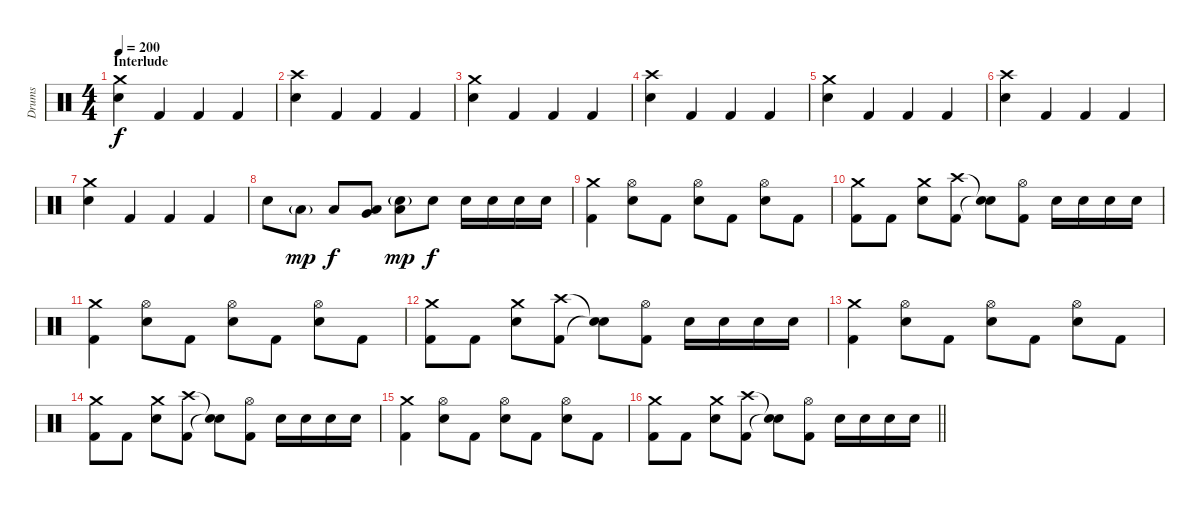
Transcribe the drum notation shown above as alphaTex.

\track ("Drums" "Drums") {instrument percussion}
\staff {score}
\articulation defaults
\ts (4 4)
\section ("" "Interlude")
\tempo 200
\clef neutral
\ks c
("Crash medium (hit)" "Electric Snare (hit)").4{dy f} "Kick (hit) 2".4 "Kick (hit) 2".4 "Kick (hit) 2".4 |
("Crash high (hit)" "Electric Snare (hit)").4 "Kick (hit) 2".4 "Kick (hit) 2".4 "Kick (hit) 2".4 |
("Crash medium (hit)" "Electric Snare (hit)").4 "Kick (hit) 2".4 "Kick (hit) 2".4 "Kick (hit) 2".4 |
("Crash high (hit)" "Electric Snare (hit)").4 "Kick (hit) 2".4 "Kick (hit) 2".4 "Kick (hit) 2".4 |
("Crash medium (hit)" "Electric Snare (hit)").4 "Kick (hit) 2".4 "Kick (hit) 2".4 "Kick (hit) 2".4 |
("Crash high (hit)" "Electric Snare (hit)").4 "Kick (hit) 2".4 "Kick (hit) 2".4 "Kick (hit) 2".4 |
("Crash medium (hit)" "Electric Snare (hit)").4 "Kick (hit) 2".4 "Kick (hit) 2".4 "Kick (hit) 2".4 |
"Electric Snare (hit)".8 "Low Floor Tom (hit)"{g}.8{dy mp} "Low Floor Tom (hit)".8{dy f} ("Low Tom (hit)" "Very Low Tom (hit)").8 ("Electric Snare (hit)"{g} "Low Tom (hit)").8{dy mp} "Electric Snare (hit)".8{dy f} "Electric Snare (hit)".16 "Electric Snare (hit)".16 "Electric Snare (hit)".16 "Electric Snare (hit)".16 |
("Crash medium (hit)" "Kick (hit) 2").4 ("Hi-Hat (open)" "Electric Snare (hit)").8 "Kick (hit) 2".8 ("Hi-Hat (open)" "Electric Snare (hit)").8 "Kick (hit) 2".8 ("Hi-Hat (open)" "Electric Snare (hit)").8 "Kick (hit) 2".8 |
("Crash medium (hit)" "Kick (hit) 2").8 "Kick (hit) 2".8 ("Crash medium (hit)" "Electric Snare (hit)").8 ("Crash high (hit)" "Kick (hit) 2").8 ("Snare (hit)"{t} "Snare (hit)"{t}).8 ("Hi-Hat (open)" "Kick (hit) 2").8 "Electric Snare (hit)".16 "Electric Snare (hit)".16 "Electric Snare (hit)".16 "Electric Snare (hit)".16 |
("Crash medium (hit)" "Kick (hit) 2").4 ("Hi-Hat (open)" "Electric Snare (hit)").8 "Kick (hit) 2".8 ("Hi-Hat (open)" "Electric Snare (hit)").8 "Kick (hit) 2".8 ("Hi-Hat (open)" "Electric Snare (hit)").8 "Kick (hit) 2".8 |
("Crash medium (hit)" "Kick (hit) 2").8 "Kick (hit) 2".8 ("Crash medium (hit)" "Electric Snare (hit)").8 ("Crash high (hit)" "Kick (hit) 2").8 ("Snare (hit)"{t} "Snare (hit)"{t}).8 ("Hi-Hat (open)" "Kick (hit) 2").8 "Electric Snare (hit)".16 "Electric Snare (hit)".16 "Electric Snare (hit)".16 "Electric Snare (hit)".16 |
("Crash medium (hit)" "Kick (hit) 2").4 ("Hi-Hat (open)" "Electric Snare (hit)").8 "Kick (hit) 2".8 ("Hi-Hat (open)" "Electric Snare (hit)").8 "Kick (hit) 2".8 ("Hi-Hat (open)" "Electric Snare (hit)").8 "Kick (hit) 2".8 |
("Crash medium (hit)" "Kick (hit) 2").8 "Kick (hit) 2".8 ("Crash medium (hit)" "Electric Snare (hit)").8 ("Crash high (hit)" "Kick (hit) 2").8 ("Snare (hit)"{t} "Snare (hit)"{t}).8 ("Hi-Hat (open)" "Kick (hit) 2").8 "Electric Snare (hit)".16 "Electric Snare (hit)".16 "Electric Snare (hit)".16 "Electric Snare (hit)".16 |
("Crash medium (hit)" "Kick (hit) 2").4 ("Hi-Hat (open)" "Electric Snare (hit)").8 "Kick (hit) 2".8 ("Hi-Hat (open)" "Electric Snare (hit)").8 "Kick (hit) 2".8 ("Hi-Hat (open)" "Electric Snare (hit)").8 "Kick (hit) 2".8 |
\barLineRight lightlight
("Crash medium (hit)" "Kick (hit) 2").8 "Kick (hit) 2".8 ("Crash medium (hit)" "Electric Snare (hit)").8 ("Crash high (hit)" "Kick (hit) 2").8 ("Snare (hit)"{t} "Snare (hit)"{t}).8 ("Hi-Hat (open)" "Kick (hit) 2").8 "Electric Snare (hit)".16 "Electric Snare (hit)".16 "Electric Snare (hit)".16 "Electric Snare (hit)".16
